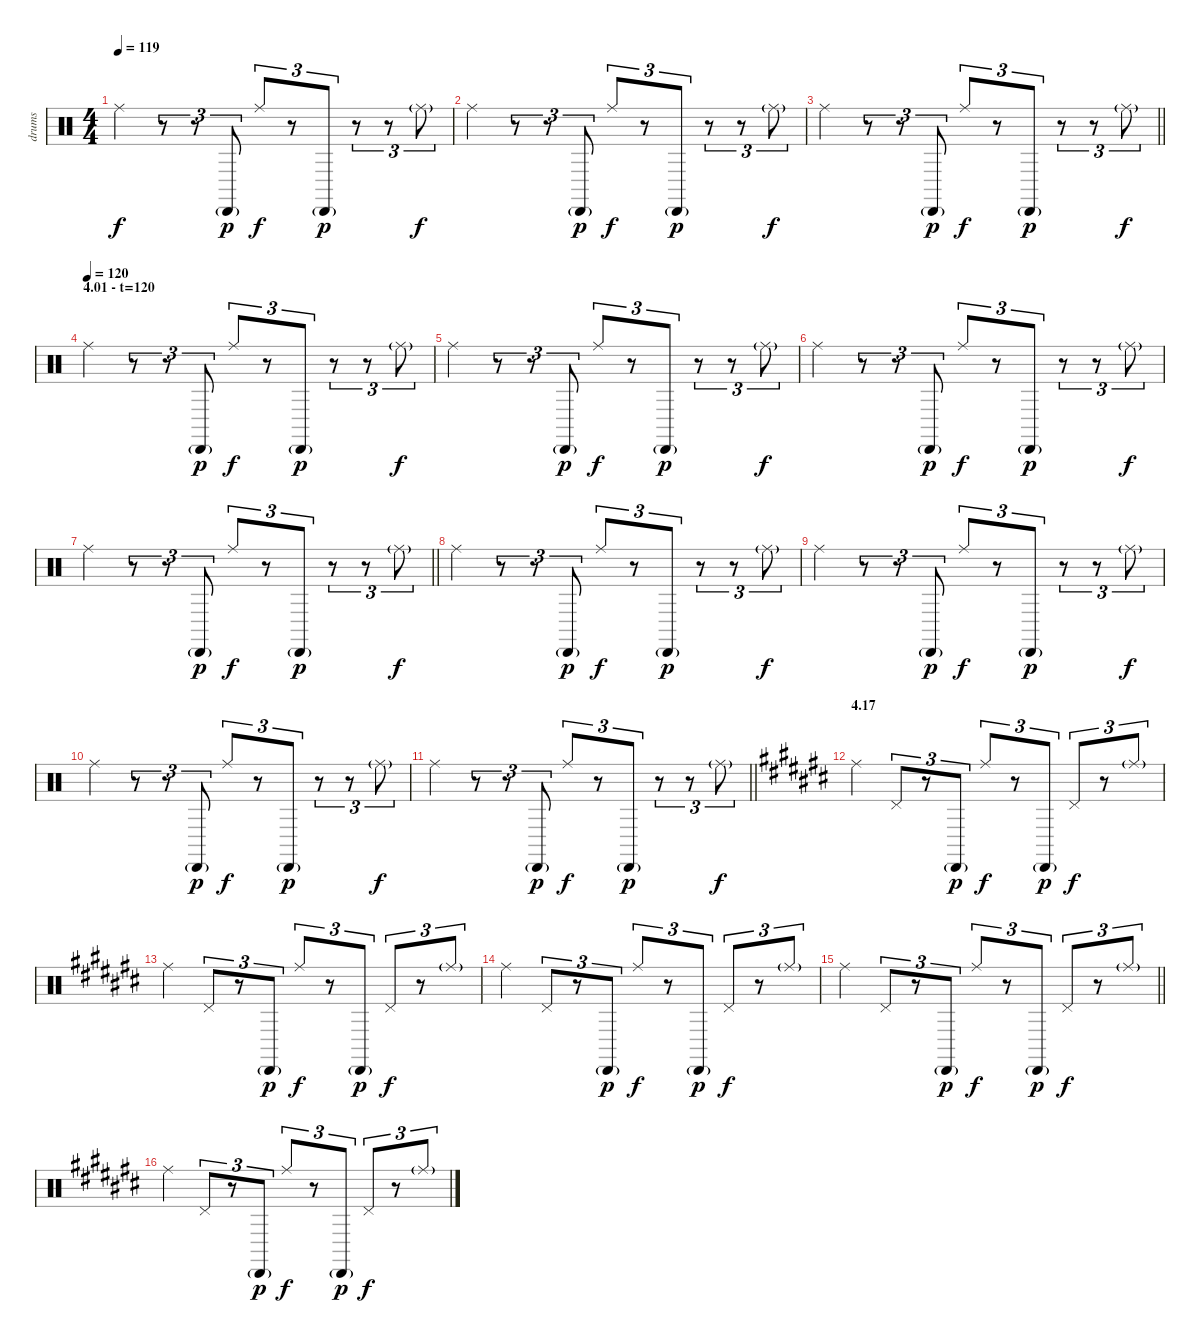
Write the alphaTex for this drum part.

\track ("drums" "drums") {instrument percussion}
\staff {score}
\articulation defaults
\ts (4 4)
\tempo 119
\clef neutral
\ks c "Ride (middle)".4{dy f}
r.8{tu (3 2)} r.8{tu (3 2)} "Cabasa (hit)"{g}.8{tu (3 2) dy p} "Ride (middle)".8{tu (3 2) dy f} r.8{tu (3 2)} "Cabasa (hit)"{g}.8{tu (3 2) dy p} r.8{tu (3 2)} r.8{tu (3 2)} "Ride (middle)"{g}.8{tu (3 2) dy f} |
"Ride (middle)".4 r.8{tu (3 2)} r.8{tu (3 2)} "Cabasa (hit)"{g}.8{tu (3 2) dy p} "Ride (middle)".8{tu (3 2) dy f} r.8{tu (3 2)} "Cabasa (hit)"{g}.8{tu (3 2) dy p} r.8{tu (3 2)} r.8{tu (3 2)} "Ride (middle)"{g}.8{tu (3 2) dy f} |
\barLineRight lightlight "Ride (middle)".4
r.8{tu (3 2)} r.8{tu (3 2)} "Cabasa (hit)"{g}.8{tu (3 2) dy p} "Ride (middle)".8{tu (3 2) dy f} r.8{tu (3 2)} "Cabasa (hit)"{g}.8{tu (3 2) dy p} r.8{tu (3 2)} r.8{tu (3 2)} "Ride (middle)"{g}.8{tu (3 2) dy f} |
\section ("" "4.01 - t=120")
\tempo (120)
"Ride (middle)".4 r.8{tu (3 2)} r.8{tu (3 2)} "Cabasa (hit)"{g}.8{tu (3 2) dy p} "Ride (middle)".8{tu (3 2) dy f} r.8{tu (3 2)} "Cabasa (hit)"{g}.8{tu (3 2) dy p} r.8{tu (3 2)} r.8{tu (3 2)} "Ride (middle)"{g}.8{tu (3 2) dy f} |
"Ride (middle)".4 r.8{tu (3 2)} r.8{tu (3 2)} "Cabasa (hit)"{g}.8{tu (3 2) dy p} "Ride (middle)".8{tu (3 2) dy f} r.8{tu (3 2)} "Cabasa (hit)"{g}.8{tu (3 2) dy p} r.8{tu (3 2)} r.8{tu (3 2)} "Ride (middle)"{g}.8{tu (3 2) dy f} |
"Ride (middle)".4 r.8{tu (3 2)} r.8{tu (3 2)} "Cabasa (hit)"{g}.8{tu (3 2) dy p} "Ride (middle)".8{tu (3 2) dy f} r.8{tu (3 2)} "Cabasa (hit)"{g}.8{tu (3 2) dy p} r.8{tu (3 2)} r.8{tu (3 2)} "Ride (middle)"{g}.8{tu (3 2) dy f} |
\barLineRight lightlight "Ride (middle)".4
r.8{tu (3 2)} r.8{tu (3 2)} "Cabasa (hit)"{g}.8{tu (3 2) dy p} "Ride (middle)".8{tu (3 2) dy f} r.8{tu (3 2)} "Cabasa (hit)"{g}.8{tu (3 2) dy p} r.8{tu (3 2)} r.8{tu (3 2)} "Ride (middle)"{g}.8{tu (3 2) dy f} |
"Ride (middle)".4 r.8{tu (3 2)} r.8{tu (3 2)} "Cabasa (hit)"{g}.8{tu (3 2) dy p} "Ride (middle)".8{tu (3 2) dy f} r.8{tu (3 2)} "Cabasa (hit)"{g}.8{tu (3 2) dy p} r.8{tu (3 2)} r.8{tu (3 2)} "Ride (middle)"{g}.8{tu (3 2) dy f} |
"Ride (middle)".4 r.8{tu (3 2)} r.8{tu (3 2)} "Cabasa (hit)"{g}.8{tu (3 2) dy p} "Ride (middle)".8{tu (3 2) dy f} r.8{tu (3 2)} "Cabasa (hit)"{g}.8{tu (3 2) dy p} r.8{tu (3 2)} r.8{tu (3 2)} "Ride (middle)"{g}.8{tu (3 2) dy f} |
"Ride (middle)".4 r.8{tu (3 2)} r.8{tu (3 2)} "Cabasa (hit)"{g}.8{tu (3 2) dy p} "Ride (middle)".8{tu (3 2) dy f} r.8{tu (3 2)} "Cabasa (hit)"{g}.8{tu (3 2) dy p} r.8{tu (3 2)} r.8{tu (3 2)} "Ride (middle)"{g}.8{tu (3 2) dy f} |
\barLineRight lightlight "Ride (middle)".4
r.8{tu (3 2)} r.8{tu (3 2)} "Cabasa (hit)"{g}.8{tu (3 2) dy p} "Ride (middle)".8{tu (3 2) dy f} r.8{tu (3 2)} "Cabasa (hit)"{g}.8{tu (3 2) dy p} r.8{tu (3 2)} r.8{tu (3 2)} "Ride (middle)"{g}.8{tu (3 2) dy f} |
\section ("" "4.17")
\ks c# "Ride (middle)".4 "Pedal Hi-Hat (hit)".8{tu (3 2)}
r.8{tu (3 2)} "Cabasa (hit)"{g}.8{tu (3 2) dy p} "Ride (middle)".8{tu (3 2) dy f} r.8{tu (3 2)} "Cabasa (hit)"{g}.8{tu (3 2) dy p} "Pedal Hi-Hat (hit)".8{tu (3 2) dy f} r.8{tu (3 2)} "Ride (middle)"{g}.8{tu (3 2)} |
"Ride (middle)".4 "Pedal Hi-Hat (hit)".8{tu (3 2)} r.8{tu (3 2)} "Cabasa (hit)"{g}.8{tu (3 2) dy p} "Ride (middle)".8{tu (3 2) dy f} r.8{tu (3 2)} "Cabasa (hit)"{g}.8{tu (3 2) dy p} "Pedal Hi-Hat (hit)".8{tu (3 2) dy f} r.8{tu (3 2)} "Ride (middle)"{g}.8{tu (3 2)} |
"Ride (middle)".4 "Pedal Hi-Hat (hit)".8{tu (3 2)} r.8{tu (3 2)} "Cabasa (hit)"{g}.8{tu (3 2) dy p} "Ride (middle)".8{tu (3 2) dy f} r.8{tu (3 2)} "Cabasa (hit)"{g}.8{tu (3 2) dy p} "Pedal Hi-Hat (hit)".8{tu (3 2) dy f} r.8{tu (3 2)} "Ride (middle)"{g}.8{tu (3 2)} |
\barLineRight lightlight "Ride (middle)".4 "Pedal Hi-Hat (hit)".8{tu (3 2)}
r.8{tu (3 2)} "Cabasa (hit)"{g}.8{tu (3 2) dy p} "Ride (middle)".8{tu (3 2) dy f} r.8{tu (3 2)} "Cabasa (hit)"{g}.8{tu (3 2) dy p} "Pedal Hi-Hat (hit)".8{tu (3 2) dy f} r.8{tu (3 2)} "Ride (middle)"{g}.8{tu (3 2)} |
"Ride (middle)".4 "Pedal Hi-Hat (hit)".8{tu (3 2)} r.8{tu (3 2)} "Cabasa (hit)"{g}.8{tu (3 2) dy p} "Ride (middle)".8{tu (3 2) dy f} r.8{tu (3 2)} "Cabasa (hit)"{g}.8{tu (3 2) dy p} "Pedal Hi-Hat (hit)".8{tu (3 2) dy f} r.8{tu (3 2)} "Ride (middle)"{g}.8{tu (3 2)}
